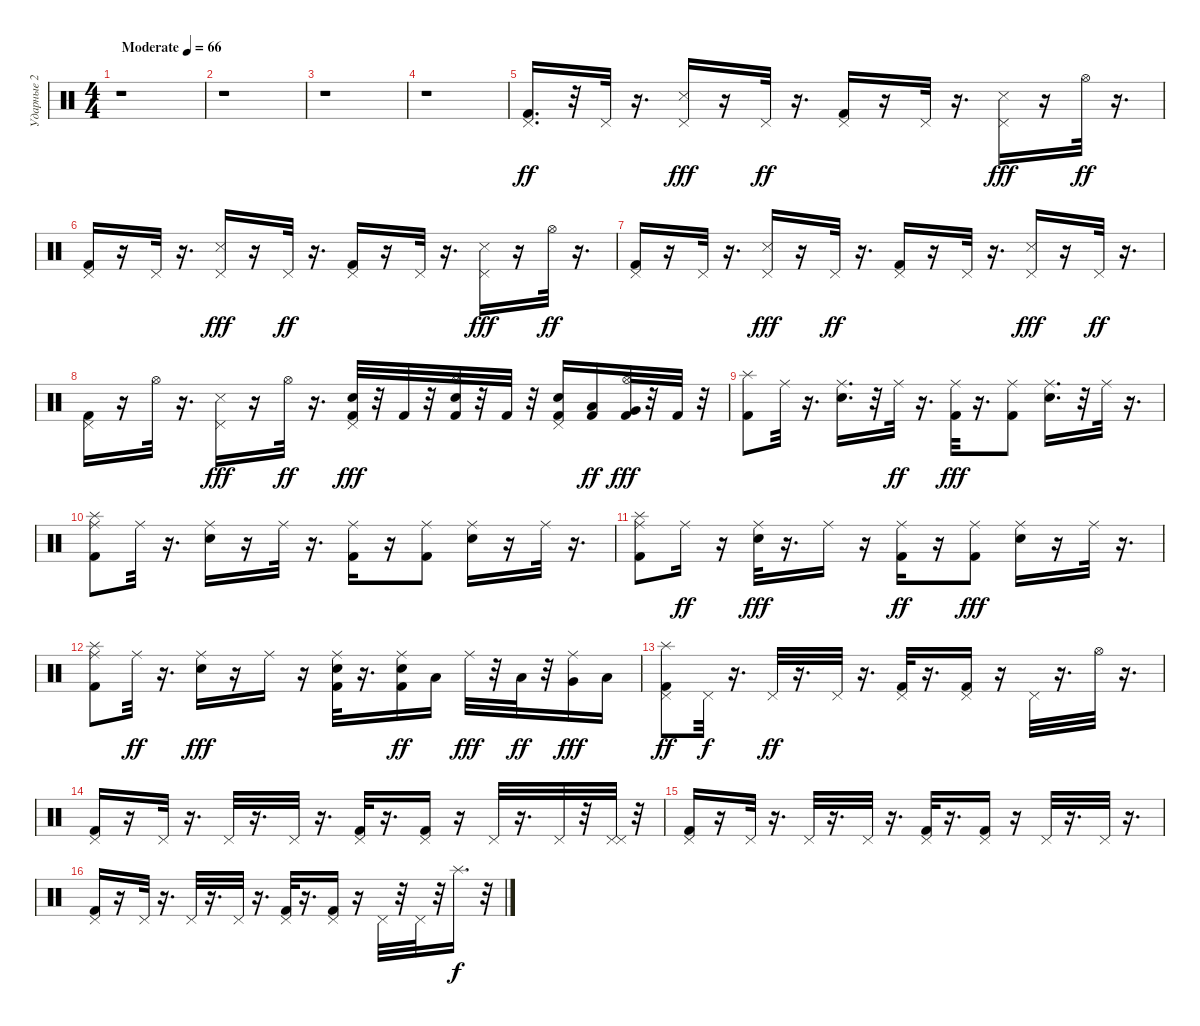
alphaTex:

\track ("Ударные 2" "Ударные 2") {instrument percussion}
\staff {score}
\articulation defaults
\ts (4 4)
\tempo (66 "Moderate")
\clef neutral
\ks c
r.1{dy ff} |
r.1 |
r.1 |
r.1 |
("Kick (hit) 2" "Pedal Hi-Hat (hit)").16{d} r.32 "Pedal Hi-Hat (hit)".32 r.16{d} ("Pedal Hi-Hat (hit)" "Snare (side stick) 3").16{dy fff} r.16 "Pedal Hi-Hat (hit)".32{dy ff} r.16{d} ("Kick (hit) 2" "Pedal Hi-Hat (hit)").16 r.16 "Pedal Hi-Hat (hit)".32 r.16{d} ("Pedal Hi-Hat (hit)" "Snare (side stick) 3").16{dy fff} r.16 "Hi-Hat (open)".32{dy ff} r.16{d} |
("Kick (hit) 2" "Pedal Hi-Hat (hit)").16 r.16 "Pedal Hi-Hat (hit)".32 r.16{d} ("Pedal Hi-Hat (hit)" "Snare (side stick) 3").16{dy fff} r.16 "Pedal Hi-Hat (hit)".32{dy ff} r.16{d} ("Kick (hit) 2" "Pedal Hi-Hat (hit)").16 r.16 "Pedal Hi-Hat (hit)".32 r.16{d} ("Pedal Hi-Hat (hit)" "Snare (side stick) 3").16{dy fff} r.16 "Hi-Hat (open)".32{dy ff} r.16{d} |
("Kick (hit) 2" "Pedal Hi-Hat (hit)").16 r.16 "Pedal Hi-Hat (hit)".32 r.16{d} ("Pedal Hi-Hat (hit)" "Snare (side stick) 3").16{dy fff} r.16 "Pedal Hi-Hat (hit)".32{dy ff} r.16{d} ("Kick (hit) 2" "Pedal Hi-Hat (hit)").16 r.16 "Pedal Hi-Hat (hit)".32 r.16{d} ("Pedal Hi-Hat (hit)" "Snare (side stick) 3").16{dy fff} r.16 "Pedal Hi-Hat (hit)".32{dy ff} r.16{d} |
("Kick (hit) 2" "Pedal Hi-Hat (hit)").16 r.16 "Hi-Hat (open)".32 r.16{d} ("Pedal Hi-Hat (hit)" "Snare (side stick) 3").16{dy fff} r.16 "Hi-Hat (open)".32{dy ff} r.16{d} ("Kick (hit) 2" "Pedal Hi-Hat (hit)" "Snare (hit) 2").32{dy fff} r.32 "Kick (hit) 2".32 r.32 ("Kick (hit) 2" "Hi-Hat (open)" "Snare (hit) 2").32 r.32 "Kick (hit) 2".32 r.32 ("Kick (hit) 2" "Pedal Hi-Hat (hit)" "Snare (hit) 2").16 ("Kick (hit) 2" "Low Tom (hit)").16{dy ff} ("Kick (hit) 2" "Hi-Hat (open)" "Very Low Tom (hit)").32{dy fff} r.32 "Kick (hit) 2".32 r.32 |
("Kick (hit) 2" "Splash (hit)").8 "Ride (middle)".32 r.16{d} ("Ride (middle)" "Snare (hit) 2").16{d} r.32 "Ride (middle)".32{dy ff} r.16{d} ("Kick (hit) 2" "Ride (middle)").32{dy fff} r.16{d} ("Kick (hit) 2" "Ride (middle)").8 ("Ride (middle)" "Snare (hit) 2").16{d} r.32 "Ride (middle)".32 r.16{d} |
("Kick (hit) 2" "Ride (middle)" "Splash (hit)").8 "Ride (middle)".32 r.16{d} ("Ride (middle)" "Snare (hit) 2").16 r.16 "Ride (middle)".32 r.16{d} ("Kick (hit) 2" "Ride (middle)").16 r.16 ("Kick (hit) 2" "Ride (middle)").8 ("Ride (middle)" "Snare (hit) 2").16 r.16 "Ride (middle)".32 r.16{d} |
("Kick (hit) 2" "Ride (middle)" "Splash (hit)").8 "Ride (middle)".16{dy ff} r.16 ("Ride (middle)" "Snare (hit) 2").32{dy fff} r.16{d} "Ride (middle)".16 r.16 ("Kick (hit) 2" "Ride (middle)").16{dy ff} r.16 ("Kick (hit) 2" "Ride (middle)").8{dy fff} ("Ride (middle)" "Snare (hit) 2").16 r.16 "Ride (middle)".32 r.16{d} |
("Kick (hit) 2" "Ride (middle)" "Splash (hit)").8 "Ride (middle)".32{dy ff} r.16{d} ("Ride (middle)" "Snare (hit) 2").16{dy fff} r.16 "Ride (middle)".16 r.16 ("Kick (hit) 2" "Ride (middle)" "Snare (hit) 2").32 r.16{d} ("Kick (hit) 2" "Ride (middle)" "Snare (hit) 2").16{dy ff} "Low Tom (hit)".16 "Ride (middle)".32{dy fff} r.32 "Low Tom (hit)".32{dy ff} r.32 ("Ride (middle)" "Very Low Tom (hit)").16{dy fff} "Low Floor Tom (hit)".16 |
("Kick (hit) 2" "Splash (hit)" "Pedal Hi-Hat (hit)").8{dy ff} "Pedal Hi-Hat (hit)".32{dy f} r.16{d} "Pedal Hi-Hat (hit)".32{dy ff} r.16{d} "Pedal Hi-Hat (hit)".32 r.16{d} ("Kick (hit) 2" "Pedal Hi-Hat (hit)").32 r.16{d} ("Kick (hit) 2" "Pedal Hi-Hat (hit)").16 r.16 "Pedal Hi-Hat (hit)".32 r.16{d} "Hi-Hat (open)".32 r.16{d} |
("Kick (hit) 2" "Pedal Hi-Hat (hit)").16 r.16 "Pedal Hi-Hat (hit)".32 r.16{d} "Pedal Hi-Hat (hit)".32 r.16{d} "Pedal Hi-Hat (hit)".32 r.16{d} ("Kick (hit) 2" "Pedal Hi-Hat (hit)").32 r.16{d} ("Kick (hit) 2" "Pedal Hi-Hat (hit)").16 r.16 "Pedal Hi-Hat (hit)".32 r.16{d} "Pedal Hi-Hat (hit)".32 r.32 ("Pedal Hi-Hat (hit)" "Pedal Hi-Hat (hit)").32 r.32 |
("Kick (hit) 2" "Pedal Hi-Hat (hit)").16 r.16 "Pedal Hi-Hat (hit)".32 r.16{d} "Pedal Hi-Hat (hit)".32 r.16{d} "Pedal Hi-Hat (hit)".32 r.16{d} ("Kick (hit) 2" "Pedal Hi-Hat (hit)").32 r.16{d} ("Kick (hit) 2" "Pedal Hi-Hat (hit)").16 r.16 "Pedal Hi-Hat (hit)".32 r.16{d} "Pedal Hi-Hat (hit)".32 r.16{d} |
("Kick (hit) 2" "Pedal Hi-Hat (hit)").16 r.16 "Pedal Hi-Hat (hit)".32 r.16{d} "Pedal Hi-Hat (hit)".32 r.16{d} "Pedal Hi-Hat (hit)".32 r.16{d} ("Kick (hit) 2" "Pedal Hi-Hat (hit)").32 r.16{d} ("Kick (hit) 2" "Pedal Hi-Hat (hit)").16 r.16 "Pedal Hi-Hat (hit)".32 r.32 "Pedal Hi-Hat (hit)".32 r.32 "Splash (hit)".16{d dy f} r.32
